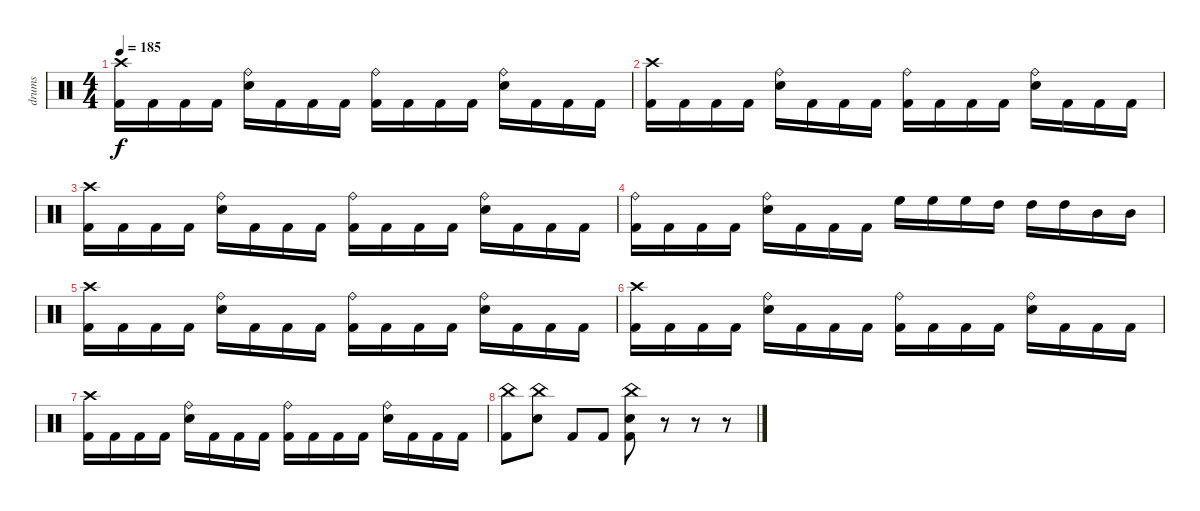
\track ("drums" "drums") {instrument percussion}
\staff {score}
\articulation defaults
\ts (4 4)
\tempo 185
\clef neutral
\ks c
("Crash high (hit)" "Kick (hit) 2").16{dy f} "Kick (hit) 2".16 "Kick (hit) 2".16 "Kick (hit) 2".16 ("Ride (bell)" "Snare (hit) 2").16 "Kick (hit) 2".16 "Kick (hit) 2".16 "Kick (hit) 2".16 ("Ride (bell)" "Kick (hit) 2").16 "Kick (hit) 2".16 "Kick (hit) 2".16 "Kick (hit) 2".16 ("Ride (bell)" "Snare (hit) 2").16 "Kick (hit) 2".16 "Kick (hit) 2".16 "Kick (hit) 2".16 |
("Crash high (hit)" "Kick (hit) 2").16 "Kick (hit) 2".16 "Kick (hit) 2".16 "Kick (hit) 2".16 ("Ride (bell)" "Snare (hit) 2").16 "Kick (hit) 2".16 "Kick (hit) 2".16 "Kick (hit) 2".16 ("Ride (bell)" "Kick (hit) 2").16 "Kick (hit) 2".16 "Kick (hit) 2".16 "Kick (hit) 2".16 ("Ride (bell)" "Snare (hit) 2").16 "Kick (hit) 2".16 "Kick (hit) 2".16 "Kick (hit) 2".16 |
("Crash high (hit)" "Kick (hit) 2").16 "Kick (hit) 2".16 "Kick (hit) 2".16 "Kick (hit) 2".16 ("Ride (bell)" "Snare (hit) 2").16 "Kick (hit) 2".16 "Kick (hit) 2".16 "Kick (hit) 2".16 ("Ride (bell)" "Kick (hit) 2").16 "Kick (hit) 2".16 "Kick (hit) 2".16 "Kick (hit) 2".16 ("Ride (bell)" "Snare (hit) 2").16 "Kick (hit) 2".16 "Kick (hit) 2".16 "Kick (hit) 2".16 |
("Ride (bell)" "Kick (hit) 2").16 "Kick (hit) 2".16 "Kick (hit) 2".16 "Kick (hit) 2".16 ("Ride (bell)" "Snare (hit) 2").16 "Kick (hit) 2".16 "Kick (hit) 2".16 "Kick (hit) 2".16 "High Floor Tom (hit)".16 "High Floor Tom (hit)".16 "High Floor Tom (hit)".16 "High Tom (hit)".16 "High Tom (hit)".16 "High Tom (hit)".16 "Mid Tom (hit)".16 "Mid Tom (hit)".16 |
("Crash high (hit)" "Kick (hit) 2").16 "Kick (hit) 2".16 "Kick (hit) 2".16 "Kick (hit) 2".16 ("Ride (bell)" "Snare (hit) 2").16 "Kick (hit) 2".16 "Kick (hit) 2".16 "Kick (hit) 2".16 ("Ride (bell)" "Kick (hit) 2").16 "Kick (hit) 2".16 "Kick (hit) 2".16 "Kick (hit) 2".16 ("Ride (bell)" "Snare (hit) 2").16 "Kick (hit) 2".16 "Kick (hit) 2".16 "Kick (hit) 2".16 |
("Crash high (hit)" "Kick (hit) 2").16 "Kick (hit) 2".16 "Kick (hit) 2".16 "Kick (hit) 2".16 ("Ride (bell)" "Snare (hit) 2").16 "Kick (hit) 2".16 "Kick (hit) 2".16 "Kick (hit) 2".16 ("Ride (bell)" "Kick (hit) 2").16 "Kick (hit) 2".16 "Kick (hit) 2".16 "Kick (hit) 2".16 ("Ride (bell)" "Snare (hit) 2").16 "Kick (hit) 2".16 "Kick (hit) 2".16 "Kick (hit) 2".16 |
("Crash high (hit)" "Kick (hit) 2").16 "Kick (hit) 2".16 "Kick (hit) 2".16 "Kick (hit) 2".16 ("Ride (bell)" "Snare (hit) 2").16 "Kick (hit) 2".16 "Kick (hit) 2".16 "Kick (hit) 2".16 ("Ride (bell)" "Kick (hit) 2").16 "Kick (hit) 2".16 "Kick (hit) 2".16 "Kick (hit) 2".16 ("Ride (bell)" "Snare (hit) 2").16 "Kick (hit) 2".16 "Kick (hit) 2".16 "Kick (hit) 2".16 |
("China (hit)" "Kick (hit) 2").8 ("China (hit)" "Snare (hit) 2").8 "Kick (hit) 2".8 "Kick (hit) 2".8 ("China (hit)" "Snare (hit) 2" "Kick (hit) 2").8 r.8 r.8 r.8
